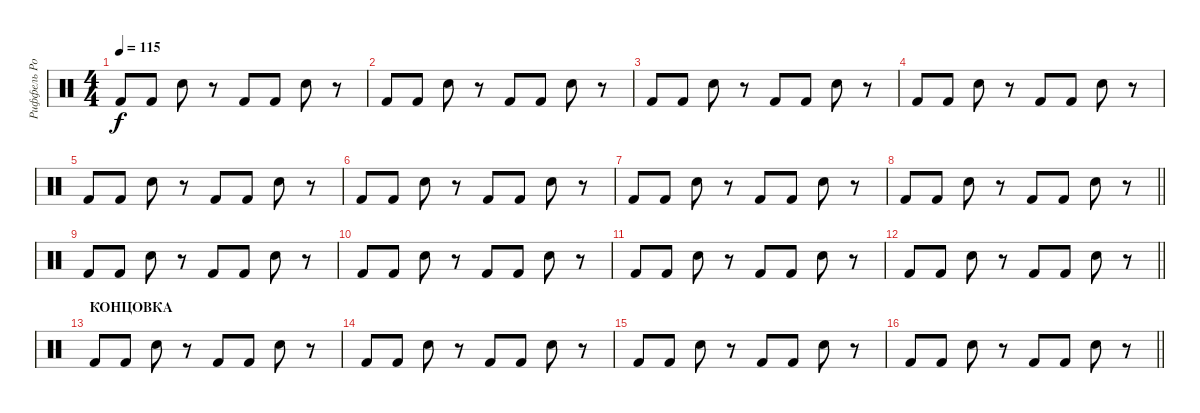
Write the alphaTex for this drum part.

\track ("Риффель Роман (главные)" "Риффель Ро") {instrument percussion}
\staff {score}
\articulation defaults
\ts (4 4)
\tempo 115
\clef neutral
\ks c "Kick (hit) 2".8{dy f} "Kick (hit) 2".8 "Electric Snare (hit)".8
r.8 "Kick (hit) 2".8 "Kick (hit) 2".8 "Electric Snare (hit)".8 r.8 |
"Kick (hit) 2".8 "Kick (hit) 2".8 "Electric Snare (hit)".8 r.8 "Kick (hit) 2".8 "Kick (hit) 2".8 "Electric Snare (hit)".8 r.8 |
"Kick (hit) 2".8 "Kick (hit) 2".8 "Electric Snare (hit)".8 r.8 "Kick (hit) 2".8 "Kick (hit) 2".8 "Electric Snare (hit)".8 r.8 |
"Kick (hit) 2".8 "Kick (hit) 2".8 "Electric Snare (hit)".8 r.8 "Kick (hit) 2".8 "Kick (hit) 2".8 "Electric Snare (hit)".8 r.8 |
"Kick (hit) 2".8 "Kick (hit) 2".8 "Electric Snare (hit)".8 r.8 "Kick (hit) 2".8 "Kick (hit) 2".8 "Electric Snare (hit)".8 r.8 |
"Kick (hit) 2".8 "Kick (hit) 2".8 "Electric Snare (hit)".8 r.8 "Kick (hit) 2".8 "Kick (hit) 2".8 "Electric Snare (hit)".8 r.8 |
"Kick (hit) 2".8 "Kick (hit) 2".8 "Electric Snare (hit)".8 r.8 "Kick (hit) 2".8 "Kick (hit) 2".8 "Electric Snare (hit)".8 r.8 |
\barLineRight lightlight "Kick (hit) 2".8 "Kick (hit) 2".8 "Electric Snare (hit)".8
r.8 "Kick (hit) 2".8 "Kick (hit) 2".8 "Electric Snare (hit)".8 r.8 |
"Kick (hit) 2".8 "Kick (hit) 2".8 "Electric Snare (hit)".8 r.8 "Kick (hit) 2".8 "Kick (hit) 2".8 "Electric Snare (hit)".8 r.8 |
"Kick (hit) 2".8 "Kick (hit) 2".8 "Electric Snare (hit)".8 r.8 "Kick (hit) 2".8 "Kick (hit) 2".8 "Electric Snare (hit)".8 r.8 |
"Kick (hit) 2".8 "Kick (hit) 2".8 "Electric Snare (hit)".8 r.8 "Kick (hit) 2".8 "Kick (hit) 2".8 "Electric Snare (hit)".8 r.8 |
\barLineRight lightlight "Kick (hit) 2".8 "Kick (hit) 2".8 "Electric Snare (hit)".8
r.8 "Kick (hit) 2".8 "Kick (hit) 2".8 "Electric Snare (hit)".8 r.8 |
\section ("" "КОНЦОВКА")
"Kick (hit) 2".8 "Kick (hit) 2".8 "Electric Snare (hit)".8 r.8 "Kick (hit) 2".8 "Kick (hit) 2".8 "Electric Snare (hit)".8 r.8 |
"Kick (hit) 2".8 "Kick (hit) 2".8 "Electric Snare (hit)".8 r.8 "Kick (hit) 2".8 "Kick (hit) 2".8 "Electric Snare (hit)".8 r.8 |
"Kick (hit) 2".8 "Kick (hit) 2".8 "Electric Snare (hit)".8 r.8 "Kick (hit) 2".8 "Kick (hit) 2".8 "Electric Snare (hit)".8 r.8 |
\barLineRight lightlight "Kick (hit) 2".8 "Kick (hit) 2".8 "Electric Snare (hit)".8
r.8 "Kick (hit) 2".8 "Kick (hit) 2".8 "Electric Snare (hit)".8 r.8
